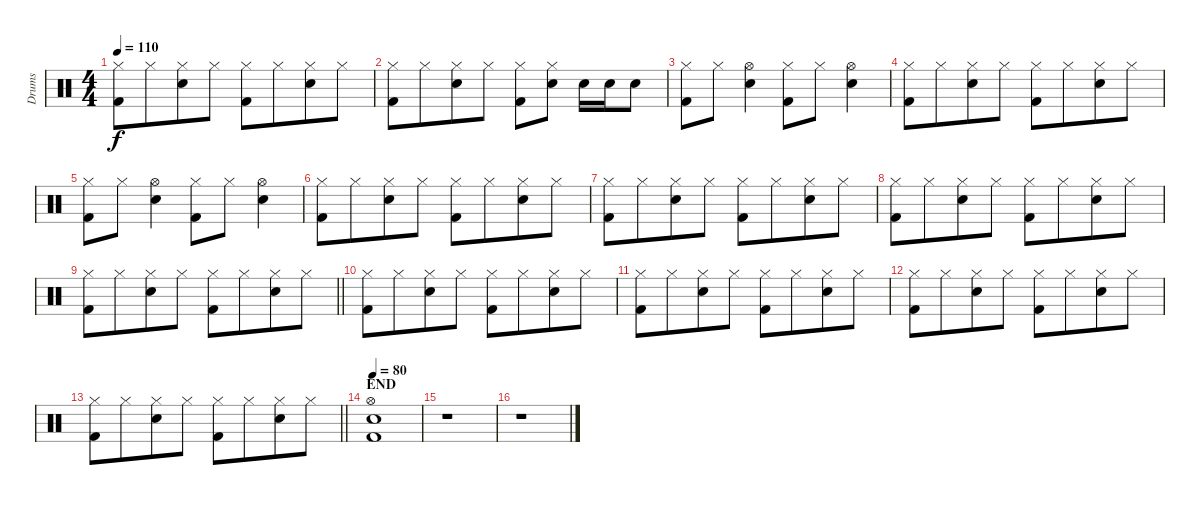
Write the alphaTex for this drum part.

\track ("Drums" "Drums") {instrument percussion}
\staff {score}
\articulation defaults
\ts (4 4)
\tempo 110
\clef neutral
\ks c
("Hi-Hat (closed)" "Kick (hit) 2").8{dy f} "Hi-Hat (closed)".8{beam merge} ("Hi-Hat (closed)" "Electric Snare (hit)").8 "Hi-Hat (closed)".8 ("Hi-Hat (closed)" "Kick (hit) 2").8 "Hi-Hat (closed)".8{beam merge} ("Hi-Hat (closed)" "Electric Snare (hit)").8 "Hi-Hat (closed)".8 |
("Hi-Hat (closed)" "Kick (hit) 2").8 "Hi-Hat (closed)".8{beam merge} ("Hi-Hat (closed)" "Electric Snare (hit)").8 "Hi-Hat (closed)".8 ("Hi-Hat (closed)" "Kick (hit) 2").8 ("Hi-Hat (closed)" "Electric Snare (hit)").8 "Electric Snare (hit)".16 "Electric Snare (hit)".16 "Electric Snare (hit)".8 |
("Hi-Hat (closed)" "Kick (hit) 2").8 "Hi-Hat (closed)".8 ("Hi-Hat (open)" "Electric Snare (hit)").4 ("Hi-Hat (closed)" "Kick (hit) 2").8 "Hi-Hat (closed)".8 ("Hi-Hat (open)" "Electric Snare (hit)").4 |
("Hi-Hat (closed)" "Kick (hit) 2").8 "Hi-Hat (closed)".8{beam merge} ("Hi-Hat (closed)" "Electric Snare (hit)").8 "Hi-Hat (closed)".8 ("Hi-Hat (closed)" "Kick (hit) 2").8 "Hi-Hat (closed)".8{beam merge} ("Hi-Hat (closed)" "Electric Snare (hit)").8 "Hi-Hat (closed)".8 |
("Hi-Hat (closed)" "Kick (hit) 2").8 "Hi-Hat (closed)".8 ("Hi-Hat (open)" "Electric Snare (hit)").4 ("Hi-Hat (closed)" "Kick (hit) 2").8 "Hi-Hat (closed)".8 ("Hi-Hat (open)" "Electric Snare (hit)").4 |
("Hi-Hat (closed)" "Kick (hit) 2").8 "Hi-Hat (closed)".8{beam merge} ("Hi-Hat (closed)" "Electric Snare (hit)").8 "Hi-Hat (closed)".8 ("Hi-Hat (closed)" "Kick (hit) 2").8 "Hi-Hat (closed)".8{beam merge} ("Hi-Hat (closed)" "Electric Snare (hit)").8 "Hi-Hat (closed)".8 |
("Hi-Hat (closed)" "Kick (hit) 2").8 "Hi-Hat (closed)".8{beam merge} ("Hi-Hat (closed)" "Electric Snare (hit)").8 "Hi-Hat (closed)".8 ("Hi-Hat (closed)" "Kick (hit) 2").8 "Hi-Hat (closed)".8{beam merge} ("Hi-Hat (closed)" "Electric Snare (hit)").8 "Hi-Hat (closed)".8 |
("Hi-Hat (closed)" "Kick (hit) 2").8 "Hi-Hat (closed)".8{beam merge} ("Hi-Hat (closed)" "Electric Snare (hit)").8 "Hi-Hat (closed)".8 ("Hi-Hat (closed)" "Kick (hit) 2").8 "Hi-Hat (closed)".8{beam merge} ("Hi-Hat (closed)" "Electric Snare (hit)").8 "Hi-Hat (closed)".8 |
\barLineRight lightlight
("Hi-Hat (closed)" "Kick (hit) 2").8 "Hi-Hat (closed)".8{beam merge} ("Hi-Hat (closed)" "Electric Snare (hit)").8 "Hi-Hat (closed)".8 ("Hi-Hat (closed)" "Kick (hit) 2").8 "Hi-Hat (closed)".8{beam merge} ("Hi-Hat (closed)" "Electric Snare (hit)").8 "Hi-Hat (closed)".8 |
("Hi-Hat (closed)" "Kick (hit) 2").8 "Hi-Hat (closed)".8{beam merge} ("Hi-Hat (closed)" "Electric Snare (hit)").8 "Hi-Hat (closed)".8 ("Hi-Hat (closed)" "Kick (hit) 2").8 "Hi-Hat (closed)".8{beam merge} ("Hi-Hat (closed)" "Electric Snare (hit)").8 "Hi-Hat (closed)".8 |
("Hi-Hat (closed)" "Kick (hit) 2").8 "Hi-Hat (closed)".8{beam merge} ("Hi-Hat (closed)" "Electric Snare (hit)").8 "Hi-Hat (closed)".8 ("Hi-Hat (closed)" "Kick (hit) 2").8 "Hi-Hat (closed)".8{beam merge} ("Hi-Hat (closed)" "Electric Snare (hit)").8 "Hi-Hat (closed)".8 |
("Hi-Hat (closed)" "Kick (hit) 2").8 "Hi-Hat (closed)".8{beam merge} ("Hi-Hat (closed)" "Electric Snare (hit)").8 "Hi-Hat (closed)".8 ("Hi-Hat (closed)" "Kick (hit) 2").8 "Hi-Hat (closed)".8{beam merge} ("Hi-Hat (closed)" "Electric Snare (hit)").8 "Hi-Hat (closed)".8 |
\barLineRight lightlight
("Hi-Hat (closed)" "Kick (hit) 2").8 "Hi-Hat (closed)".8{beam merge} ("Hi-Hat (closed)" "Electric Snare (hit)").8 "Hi-Hat (closed)".8 ("Hi-Hat (closed)" "Kick (hit) 2").8 "Hi-Hat (closed)".8{beam merge} ("Hi-Hat (closed)" "Electric Snare (hit)").8 "Hi-Hat (closed)".8 |
\section ("" "END")
\tempo 80
("Hi-Hat (open)" "Electric Snare (hit)" "Kick (hit) 2").1 |
r.1 |
r.1
